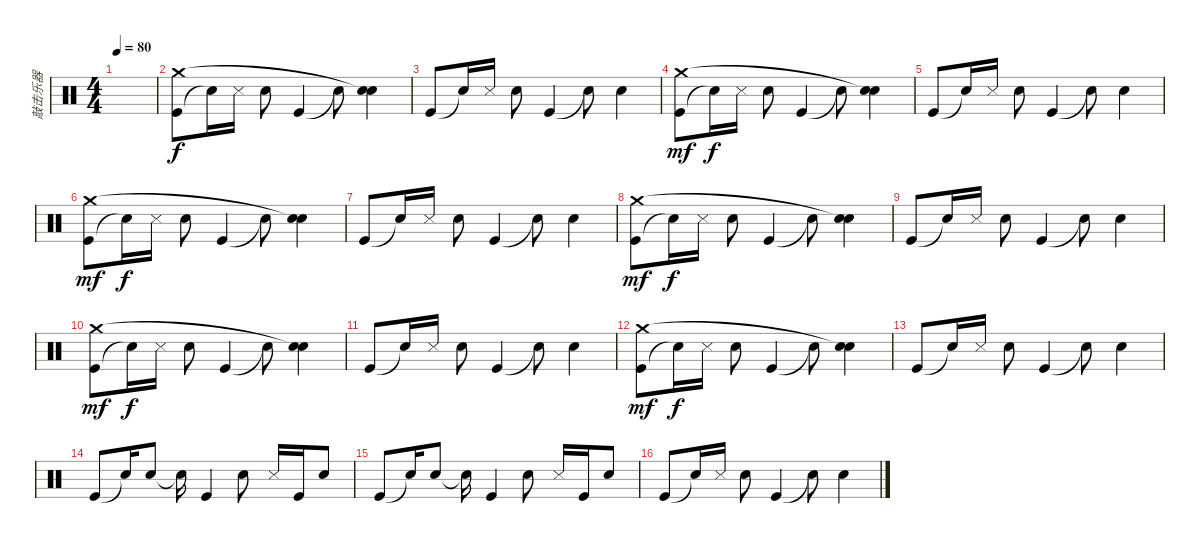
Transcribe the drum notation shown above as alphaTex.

\track ("敲击乐器" "敲击乐器") {instrument percussion}
\staff {score}
\articulation defaults
\ts (4 4)
\tempo 80
\clef neutral
\ks c
|
("Kick (hit)" "Crash medium (hit)").8 "Snare (hit)"{t}.16{dy f} "Metronome (hit)".16 "Metronome (bell)".8 "Kick (hit)".4 "Snare (hit)"{t}.8 ("Metronome (bell)" "Snare (hit)"{t}).4 |
"Kick (hit)".8 "Snare (hit)"{t}.16 "Metronome (hit)".16 "Metronome (bell)".8 "Kick (hit)".4 "Snare (hit)"{t}.8 "Metronome (bell)".4 |
("Kick (hit)" "Crash medium (hit)").8{dy mf} "Snare (hit)"{t}.16{dy f} "Metronome (hit)".16 "Metronome (bell)".8 "Kick (hit)".4 "Snare (hit)"{t}.8 ("Metronome (bell)" "Snare (hit)"{t}).4 |
"Kick (hit)".8 "Snare (hit)"{t}.16 "Metronome (hit)".16 "Metronome (bell)".8 "Kick (hit)".4 "Snare (hit)"{t}.8 "Metronome (bell)".4 |
("Kick (hit)" "Crash medium (hit)").8{dy mf} "Snare (hit)"{t}.16{dy f} "Metronome (hit)".16 "Metronome (bell)".8 "Kick (hit)".4 "Snare (hit)"{t}.8 ("Metronome (bell)" "Snare (hit)"{t}).4 |
"Kick (hit)".8 "Snare (hit)"{t}.16 "Metronome (hit)".16 "Metronome (bell)".8 "Kick (hit)".4 "Snare (hit)"{t}.8 "Metronome (bell)".4 |
("Kick (hit)" "Crash medium (hit)").8{dy mf} "Snare (hit)"{t}.16{dy f} "Metronome (hit)".16 "Metronome (bell)".8 "Kick (hit)".4 "Snare (hit)"{t}.8 ("Metronome (bell)" "Snare (hit)"{t}).4 |
"Kick (hit)".8 "Snare (hit)"{t}.16 "Metronome (hit)".16 "Metronome (bell)".8 "Kick (hit)".4 "Snare (hit)"{t}.8 "Metronome (bell)".4 |
("Kick (hit)" "Crash medium (hit)").8{dy mf} "Snare (hit)"{t}.16{dy f} "Metronome (hit)".16 "Metronome (bell)".8 "Kick (hit)".4 "Snare (hit)"{t}.8 ("Metronome (bell)" "Snare (hit)"{t}).4 |
"Kick (hit)".8 "Snare (hit)"{t}.16 "Metronome (hit)".16 "Metronome (bell)".8 "Kick (hit)".4 "Snare (hit)"{t}.8 "Metronome (bell)".4 |
("Kick (hit)" "Crash medium (hit)").8{dy mf} "Snare (hit)"{t}.16{dy f} "Metronome (hit)".16 "Metronome (bell)".8 "Kick (hit)".4 "Snare (hit)"{t}.8 ("Metronome (bell)" "Snare (hit)"{t}).4 |
"Kick (hit)".8 "Snare (hit)"{t}.16 "Metronome (hit)".16 "Metronome (bell)".8 "Kick (hit)".4 "Snare (hit)"{t}.8 "Metronome (bell)".4 |
"Kick (hit)".8 "Metronome (bell)"{t}.16 "Metronome (bell)".8 "Snare (hit)"{t}.16 "Kick (hit)".4 "Metronome (bell)".8 "Metronome (hit)".16 "Kick (hit)".16 "Metronome (bell)".8 |
"Kick (hit)".8 "Metronome (bell)"{t}.16 "Metronome (bell)".8 "Snare (hit)"{t}.16 "Kick (hit)".4 "Metronome (bell)".8 "Metronome (hit)".16 "Kick (hit)".16 "Metronome (bell)".8 |
"Kick (hit)".8 "Snare (hit)"{t}.16 "Metronome (hit)".16 "Metronome (bell)".8 "Kick (hit)".4 "Snare (hit)"{t}.8 "Metronome (bell)".4
